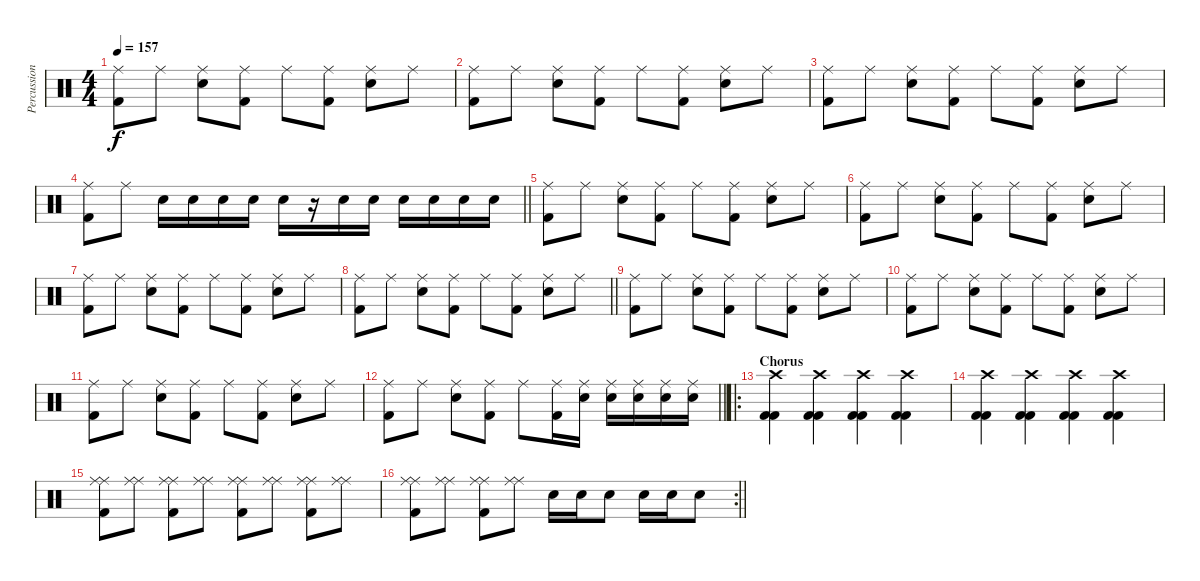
\track ("Percussion" "Percussion") {instrument percussion}
\staff {score}
\articulation defaults
\ts (4 4)
\tempo 157
\clef neutral
\ks c
("Kick (hit) 2" "Ride (middle)").8{dy f} "Ride (middle)".8 ("Snare (hit) 2" "Ride (middle)").8 ("Kick (hit) 2" "Ride (middle)").8 "Ride (middle)".8 ("Kick (hit) 2" "Ride (middle)").8 ("Snare (hit) 2" "Ride (middle)").8 "Ride (middle)".8 |
("Kick (hit) 2" "Ride (middle)").8 "Ride (middle)".8 ("Snare (hit) 2" "Ride (middle)").8 ("Kick (hit) 2" "Ride (middle)").8 "Ride (middle)".8 ("Kick (hit) 2" "Ride (middle)").8 ("Snare (hit) 2" "Ride (middle)").8 "Ride (middle)".8 |
("Kick (hit) 2" "Ride (middle)").8 "Ride (middle)".8 ("Snare (hit) 2" "Ride (middle)").8 ("Kick (hit) 2" "Ride (middle)").8 "Ride (middle)".8 ("Kick (hit) 2" "Ride (middle)").8 ("Snare (hit) 2" "Ride (middle)").8 "Ride (middle)".8 |
\barLineRight lightlight
("Kick (hit) 2" "Ride (middle)").8 "Ride (middle)".8 "Snare (hit) 2".16 "Snare (hit) 2".16 "Snare (hit) 2".16 "Snare (hit) 2".16 "Snare (hit) 2".16 r.16 "Snare (hit) 2".16 "Snare (hit) 2".16 "Snare (hit) 2".16 "Snare (hit) 2".16 "Snare (hit) 2".16 "Snare (hit) 2".16 |
("Kick (hit) 2" "Ride (middle)").8 "Ride (middle)".8 ("Snare (hit) 2" "Ride (middle)").8 ("Kick (hit) 2" "Ride (middle)").8 "Ride (middle)".8 ("Kick (hit) 2" "Ride (middle)").8 ("Snare (hit) 2" "Ride (middle)").8 "Ride (middle)".8 |
("Kick (hit) 2" "Ride (middle)").8 "Ride (middle)".8 ("Snare (hit) 2" "Ride (middle)").8 ("Kick (hit) 2" "Ride (middle)").8 "Ride (middle)".8 ("Kick (hit) 2" "Ride (middle)").8 ("Snare (hit) 2" "Ride (middle)").8 "Ride (middle)".8 |
("Kick (hit) 2" "Ride (middle)").8 "Ride (middle)".8 ("Snare (hit) 2" "Ride (middle)").8 ("Kick (hit) 2" "Ride (middle)").8 "Ride (middle)".8 ("Kick (hit) 2" "Ride (middle)").8 ("Snare (hit) 2" "Ride (middle)").8 "Ride (middle)".8 |
\barLineRight lightlight
("Kick (hit) 2" "Ride (middle)").8 "Ride (middle)".8 ("Snare (hit) 2" "Ride (middle)").8 ("Kick (hit) 2" "Ride (middle)").8 "Ride (middle)".8 ("Kick (hit) 2" "Ride (middle)").8 ("Snare (hit) 2" "Ride (middle)").8 "Ride (middle)".8 |
("Kick (hit) 2" "Ride (middle)").8 "Ride (middle)".8 ("Snare (hit) 2" "Ride (middle)").8 ("Kick (hit) 2" "Ride (middle)").8 "Ride (middle)".8 ("Kick (hit) 2" "Ride (middle)").8 ("Snare (hit) 2" "Ride (middle)").8 "Ride (middle)".8 |
("Kick (hit) 2" "Ride (middle)").8 "Ride (middle)".8 ("Snare (hit) 2" "Ride (middle)").8 ("Kick (hit) 2" "Ride (middle)").8 "Ride (middle)".8 ("Kick (hit) 2" "Ride (middle)").8 ("Snare (hit) 2" "Ride (middle)").8 "Ride (middle)".8 |
("Kick (hit) 2" "Ride (middle)").8 "Ride (middle)".8 ("Snare (hit) 2" "Ride (middle)").8 ("Kick (hit) 2" "Ride (middle)").8 "Ride (middle)".8 ("Kick (hit) 2" "Ride (middle)").8 ("Snare (hit) 2" "Ride (middle)").8 "Ride (middle)".8 |
\barLineRight lightlight
("Kick (hit) 2" "Ride (middle)").8 "Ride (middle)".8 ("Snare (hit) 2" "Ride (middle)").8 ("Kick (hit) 2" "Ride (middle)").8 "Ride (middle)".8 ("Kick (hit) 2" "Ride (middle)").16 ("Snare (hit) 2" "Ride (middle)").16 ("Snare (hit) 2" "Ride (middle)").16 ("Snare (hit) 2" "Ride (middle)").16 ("Snare (hit) 2" "Ride (middle)").16 ("Snare (hit) 2" "Ride (middle)").16 |
\ro
\section ("" "Chorus")
("Kick (hit) 2" "Kick (hit) 2" "Crash high (hit)").4 ("Kick (hit) 2" "Kick (hit) 2" "Crash high (hit)").4 ("Kick (hit) 2" "Kick (hit) 2" "Crash high (hit)").4 ("Kick (hit) 2" "Kick (hit) 2" "Crash high (hit)").4 |
("Kick (hit) 2" "Kick (hit) 2" "Crash high (hit)").4 ("Kick (hit) 2" "Kick (hit) 2" "Crash high (hit)").4 ("Kick (hit) 2" "Kick (hit) 2" "Crash high (hit)").4 ("Kick (hit) 2" "Kick (hit) 2" "Crash high (hit)").4 |
("Ride (middle)" "Kick (hit) 2" "Ride (middle)").8 ("Ride (middle)" "Ride (middle)").8 ("Ride (middle)" "Kick (hit) 2" "Ride (middle)").8 ("Ride (middle)" "Ride (middle)").8 ("Ride (middle)" "Kick (hit) 2" "Ride (middle)").8 ("Ride (middle)" "Ride (middle)").8 ("Ride (middle)" "Kick (hit) 2" "Ride (middle)").8 ("Ride (middle)" "Ride (middle)").8 |
\rc 2
\barLineRight lightlight
("Ride (middle)" "Kick (hit) 2" "Ride (middle)").8 ("Ride (middle)" "Ride (middle)").8 ("Ride (middle)" "Kick (hit) 2" "Ride (middle)").8 ("Ride (middle)" "Ride (middle)").8 "Snare (hit) 2".16 "Snare (hit) 2".16 "Snare (hit) 2".8 "Snare (hit) 2".16 "Snare (hit) 2".16 "Snare (hit) 2".8
